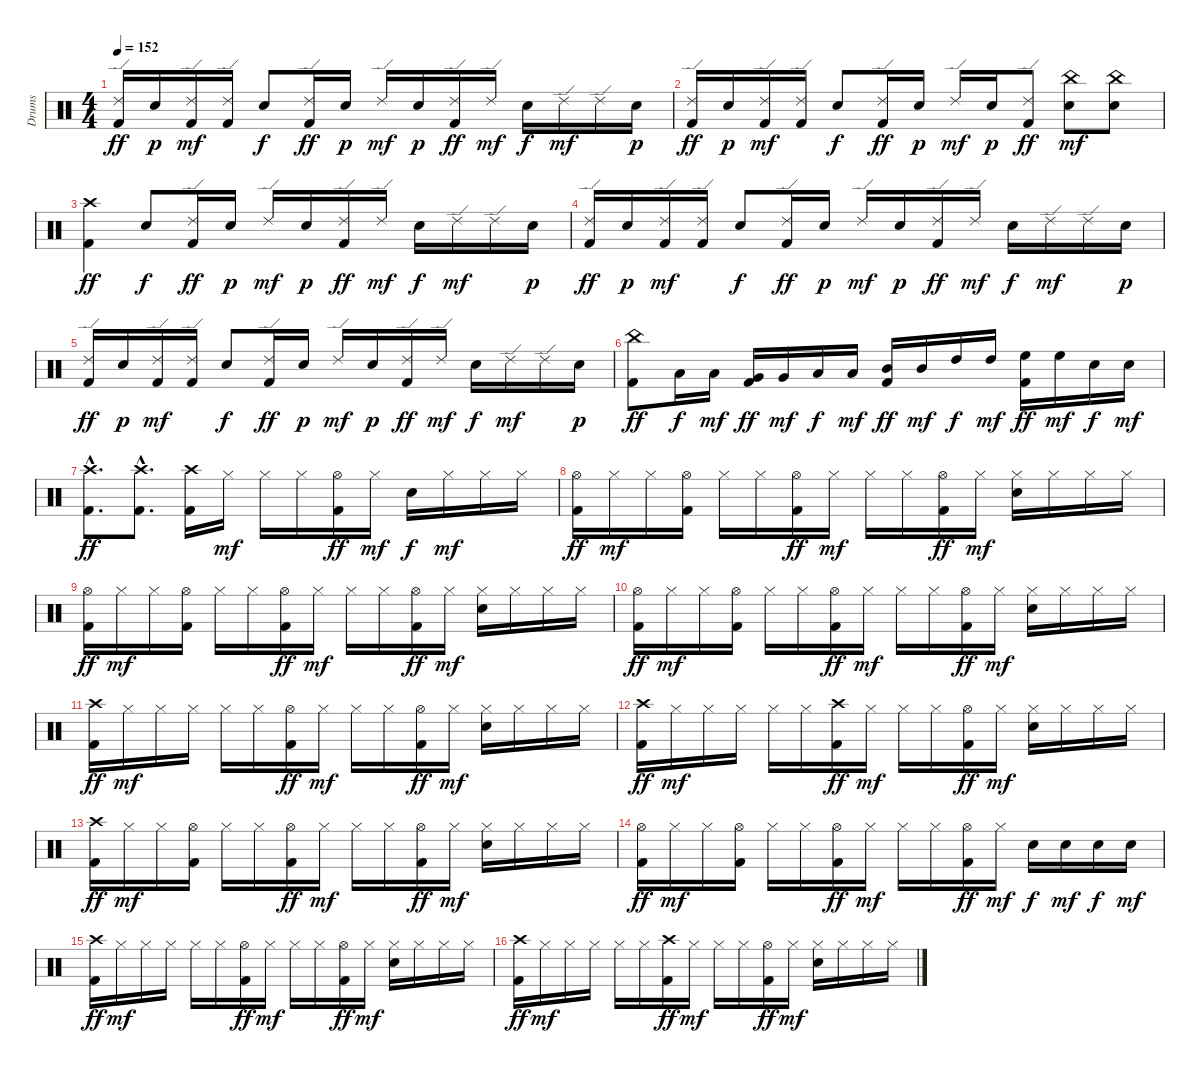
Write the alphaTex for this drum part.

\track ("Drums" "Drums") {instrument percussion}
\staff {score}
\articulation defaults
\ts (4 4)
\tempo 152
\clef neutral
\ks c
("Ride (edge) 2" "Kick (hit) 2").16{dy ff} "Snare (hit) 2".16{dy p} ("Ride (edge) 2" "Kick (hit) 2").16{dy mf} ("Ride (edge) 2" "Kick (hit) 2").16 "Snare (hit) 2".8{dy f} ("Ride (edge) 2" "Kick (hit) 2").16{dy ff} "Snare (hit) 2".16{dy p} "Ride (edge) 2".16{dy mf} "Snare (hit) 2".16{dy p} ("Ride (edge) 2" "Kick (hit) 2").16{dy ff} "Ride (edge) 2".16{dy mf} "Snare (hit) 2".16{dy f} "Ride (edge) 2".16{dy mf} "Ride (edge) 2".16 "Snare (hit) 2".16{dy p} |
("Ride (edge) 2" "Kick (hit) 2").16{dy ff} "Snare (hit) 2".16{dy p} ("Ride (edge) 2" "Kick (hit) 2").16{dy mf} ("Ride (edge) 2" "Kick (hit) 2").16 "Snare (hit) 2".8{dy f} ("Ride (edge) 2" "Kick (hit) 2").16{dy ff} "Snare (hit) 2".16{dy p} "Ride (edge) 2".16{dy mf} "Snare (hit) 2".16{dy p} ("Ride (edge) 2" "Kick (hit) 2").8{dy ff} ("China (hit)" "Snare (hit) 2").8{dy mf} ("China (hit)" "Snare (hit) 2").8 |
("Crash high (hit)" "Kick (hit) 2").4{dy ff} "Snare (hit) 2".8{dy f} ("Ride (edge) 2" "Kick (hit) 2").16{dy ff} "Snare (hit) 2".16{dy p} "Ride (edge) 2".16{dy mf} "Snare (hit) 2".16{dy p} ("Ride (edge) 2" "Kick (hit) 2").16{dy ff} "Ride (edge) 2".16{dy mf} "Snare (hit) 2".16{dy f} "Ride (edge) 2".16{dy mf} "Ride (edge) 2".16 "Snare (hit) 2".16{dy p} |
("Ride (edge) 2" "Kick (hit) 2").16{dy ff} "Snare (hit) 2".16{dy p} ("Ride (edge) 2" "Kick (hit) 2").16{dy mf} ("Ride (edge) 2" "Kick (hit) 2").16 "Snare (hit) 2".8{dy f} ("Ride (edge) 2" "Kick (hit) 2").16{dy ff} "Snare (hit) 2".16{dy p} "Ride (edge) 2".16{dy mf} "Snare (hit) 2".16{dy p} ("Ride (edge) 2" "Kick (hit) 2").16{dy ff} "Ride (edge) 2".16{dy mf} "Snare (hit) 2".16{dy f} "Ride (edge) 2".16{dy mf} "Ride (edge) 2".16 "Snare (hit) 2".16{dy p} |
("Ride (edge) 2" "Kick (hit) 2").16{dy ff} "Snare (hit) 2".16{dy p} ("Ride (edge) 2" "Kick (hit) 2").16{dy mf} ("Ride (edge) 2" "Kick (hit) 2").16 "Snare (hit) 2".8{dy f} ("Ride (edge) 2" "Kick (hit) 2").16{dy ff} "Snare (hit) 2".16{dy p} "Ride (edge) 2".16{dy mf} "Snare (hit) 2".16{dy p} ("Ride (edge) 2" "Kick (hit) 2").16{dy ff} "Ride (edge) 2".16{dy mf} "Snare (hit) 2".16{dy f} "Ride (edge) 2".16{dy mf} "Ride (edge) 2".16 "Snare (hit) 2".16{dy p} |
("China (hit)" "Kick (hit) 2").8{dy ff} "Low Floor Tom (hit)".16{dy f} "Low Floor Tom (hit)".16{dy mf} ("Very Low Tom (hit)" "Kick (hit) 2").16{dy ff} "Very Low Tom (hit)".16{dy mf} "Low Tom (hit)".16{dy f} "Low Tom (hit)".16{dy mf} ("Mid Tom (hit)" "Kick (hit) 2").16{dy ff} "Mid Tom (hit)".16{dy mf} "High Tom (hit)".16{dy f} "High Tom (hit)".16{dy mf} ("High Floor Tom (hit)" "Kick (hit) 2").16{dy ff} "High Floor Tom (hit)".16{dy mf} "Snare (hit) 2".16{dy f} "Snare (hit) 2".16{dy mf} |
("Crash high (hit)"{hac} "Kick (hit) 2"{hac}).8{d dy ff} ("Crash high (hit)"{hac} "Kick (hit) 2"{hac}).8{d} ("Crash high (hit)" "Kick (hit) 2").16 "Hi-Hat (closed)".16{dy mf} "Hi-Hat (closed)".16 "Hi-Hat (closed)".16 ("Hi-Hat (open)" "Kick (hit) 2").16{dy ff} "Hi-Hat (closed)".16{dy mf} "Snare (hit) 2".16{dy f} "Hi-Hat (closed)".16{dy mf} "Hi-Hat (closed)".16 "Hi-Hat (closed)".16 |
("Hi-Hat (open)" "Kick (hit) 2").16{dy ff} "Hi-Hat (closed)".16{dy mf} "Hi-Hat (closed)".16 ("Hi-Hat (open)" "Kick (hit) 2").16 "Hi-Hat (closed)".16 "Hi-Hat (closed)".16 ("Hi-Hat (open)" "Kick (hit) 2").16{dy ff} "Hi-Hat (closed)".16{dy mf} "Hi-Hat (closed)".16 "Hi-Hat (closed)".16 ("Hi-Hat (open)" "Kick (hit) 2").16{dy ff} "Hi-Hat (closed)".16{dy mf} ("Hi-Hat (closed)" "Snare (hit) 2").16 "Hi-Hat (closed)".16 "Hi-Hat (closed)".16 "Hi-Hat (closed)".16 |
("Hi-Hat (open)" "Kick (hit) 2").16{dy ff} "Hi-Hat (closed)".16{dy mf} "Hi-Hat (closed)".16 ("Hi-Hat (open)" "Kick (hit) 2").16 "Hi-Hat (closed)".16 "Hi-Hat (closed)".16 ("Hi-Hat (open)" "Kick (hit) 2").16{dy ff} "Hi-Hat (closed)".16{dy mf} "Hi-Hat (closed)".16 "Hi-Hat (closed)".16 ("Hi-Hat (open)" "Kick (hit) 2").16{dy ff} "Hi-Hat (closed)".16{dy mf} ("Hi-Hat (closed)" "Snare (hit) 2").16 "Hi-Hat (closed)".16 "Hi-Hat (closed)".16 "Hi-Hat (closed)".16 |
("Hi-Hat (open)" "Kick (hit) 2").16{dy ff} "Hi-Hat (closed)".16{dy mf} "Hi-Hat (closed)".16 ("Hi-Hat (open)" "Kick (hit) 2").16 "Hi-Hat (closed)".16 "Hi-Hat (closed)".16 ("Hi-Hat (open)" "Kick (hit) 2").16{dy ff} "Hi-Hat (closed)".16{dy mf} "Hi-Hat (closed)".16 "Hi-Hat (closed)".16 ("Hi-Hat (open)" "Kick (hit) 2").16{dy ff} "Hi-Hat (closed)".16{dy mf} ("Hi-Hat (closed)" "Snare (hit) 2").16 "Hi-Hat (closed)".16 "Hi-Hat (closed)".16 "Hi-Hat (closed)".16 |
("Crash high (hit)" "Kick (hit) 2").16{dy ff} "Hi-Hat (closed)".16{dy mf} "Hi-Hat (closed)".16 "Hi-Hat (closed)".16 "Hi-Hat (closed)".16 "Hi-Hat (closed)".16 ("Hi-Hat (open)" "Kick (hit) 2").16{dy ff} "Hi-Hat (closed)".16{dy mf} "Hi-Hat (closed)".16 "Hi-Hat (closed)".16 ("Hi-Hat (open)" "Kick (hit) 2").16{dy ff} "Hi-Hat (closed)".16{dy mf} ("Hi-Hat (closed)" "Snare (hit) 2").16 "Hi-Hat (closed)".16 "Hi-Hat (closed)".16 "Hi-Hat (closed)".16 |
("Crash high (hit)" "Kick (hit) 2").16{dy ff} "Hi-Hat (closed)".16{dy mf} "Hi-Hat (closed)".16 "Hi-Hat (closed)".16 "Hi-Hat (closed)".16 "Hi-Hat (closed)".16 ("Crash high (hit)" "Kick (hit) 2").16{dy ff} "Hi-Hat (closed)".16{dy mf} "Hi-Hat (closed)".16 "Hi-Hat (closed)".16 ("Hi-Hat (open)" "Kick (hit) 2").16{dy ff} "Hi-Hat (closed)".16{dy mf} ("Hi-Hat (closed)" "Snare (hit) 2").16 "Hi-Hat (closed)".16 "Hi-Hat (closed)".16 "Hi-Hat (closed)".16 |
("Crash high (hit)" "Kick (hit) 2").16{dy ff} "Hi-Hat (closed)".16{dy mf} "Hi-Hat (closed)".16 ("Hi-Hat (open)" "Kick (hit) 2").16 "Hi-Hat (closed)".16 "Hi-Hat (closed)".16 ("Hi-Hat (open)" "Kick (hit) 2").16{dy ff} "Hi-Hat (closed)".16{dy mf} "Hi-Hat (closed)".16 "Hi-Hat (closed)".16 ("Hi-Hat (open)" "Kick (hit) 2").16{dy ff} "Hi-Hat (closed)".16{dy mf} ("Hi-Hat (closed)" "Snare (hit) 2").16 "Hi-Hat (closed)".16 "Hi-Hat (closed)".16 "Hi-Hat (closed)".16 |
("Hi-Hat (open)" "Kick (hit) 2").16{dy ff} "Hi-Hat (closed)".16{dy mf} "Hi-Hat (closed)".16 ("Hi-Hat (open)" "Kick (hit) 2").16 "Hi-Hat (closed)".16 "Hi-Hat (closed)".16 ("Hi-Hat (open)" "Kick (hit) 2").16{dy ff} "Hi-Hat (closed)".16{dy mf} "Hi-Hat (closed)".16 "Hi-Hat (closed)".16 ("Hi-Hat (open)" "Kick (hit) 2").16{dy ff} "Hi-Hat (closed)".16{dy mf} "Snare (hit) 2".16{dy f} "Snare (hit) 2".16{dy mf} "Snare (hit) 2".16{dy f} "Snare (hit) 2".16{dy mf} |
("Crash high (hit)" "Kick (hit) 2").16{dy ff} "Hi-Hat (closed)".16{dy mf} "Hi-Hat (closed)".16 "Hi-Hat (closed)".16 "Hi-Hat (closed)".16 "Hi-Hat (closed)".16 ("Hi-Hat (open)" "Kick (hit) 2").16{dy ff} "Hi-Hat (closed)".16{dy mf} "Hi-Hat (closed)".16 "Hi-Hat (closed)".16 ("Hi-Hat (open)" "Kick (hit) 2").16{dy ff} "Hi-Hat (closed)".16{dy mf} ("Hi-Hat (closed)" "Snare (hit) 2").16 "Hi-Hat (closed)".16 "Hi-Hat (closed)".16 "Hi-Hat (closed)".16 |
("Crash high (hit)" "Kick (hit) 2").16{dy ff} "Hi-Hat (closed)".16{dy mf} "Hi-Hat (closed)".16 "Hi-Hat (closed)".16 "Hi-Hat (closed)".16 "Hi-Hat (closed)".16 ("Crash high (hit)" "Kick (hit) 2").16{dy ff} "Hi-Hat (closed)".16{dy mf} "Hi-Hat (closed)".16 "Hi-Hat (closed)".16 ("Hi-Hat (open)" "Kick (hit) 2").16{dy ff} "Hi-Hat (closed)".16{dy mf} ("Hi-Hat (closed)" "Snare (hit) 2").16 "Hi-Hat (closed)".16 "Hi-Hat (closed)".16 "Hi-Hat (closed)".16
